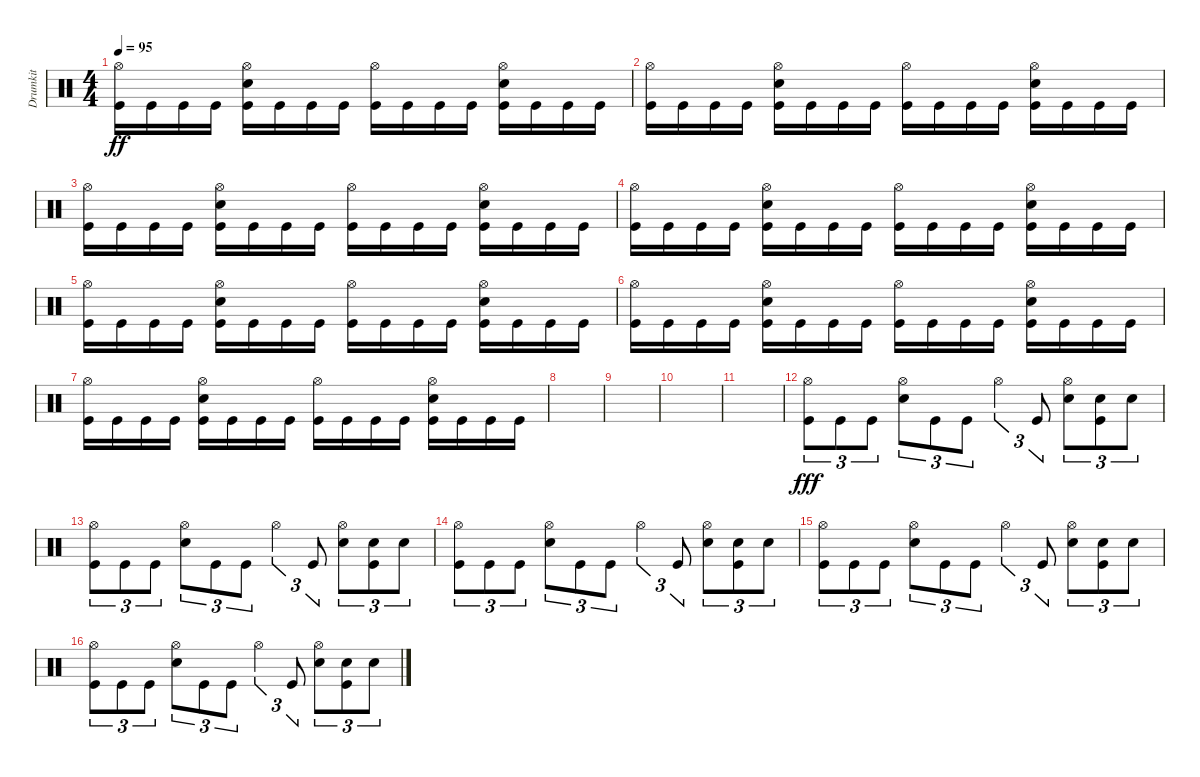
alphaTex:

\track ("Drumkit" "Drumkit") {instrument percussion}
\staff {score}
\articulation defaults
\ts (4 4)
\tempo 95
\clef neutral
\ks c
("Hi-Hat (open)" "Kick (hit)").16{dy ff} "Kick (hit)".16 "Kick (hit)".16 "Kick (hit)".16 ("Hi-Hat (open)" "Snare (hit) 2" "Kick (hit)").16 "Kick (hit)".16 "Kick (hit)".16 "Kick (hit)".16 ("Hi-Hat (open)" "Kick (hit)").16 "Kick (hit)".16 "Kick (hit)".16 "Kick (hit)".16 ("Hi-Hat (open)" "Snare (hit) 2" "Kick (hit)").16 "Kick (hit)".16 "Kick (hit)".16 "Kick (hit)".16 |
("Hi-Hat (open)" "Kick (hit)").16 "Kick (hit)".16 "Kick (hit)".16 "Kick (hit)".16 ("Hi-Hat (open)" "Snare (hit) 2" "Kick (hit)").16 "Kick (hit)".16 "Kick (hit)".16 "Kick (hit)".16 ("Hi-Hat (open)" "Kick (hit)").16 "Kick (hit)".16 "Kick (hit)".16 "Kick (hit)".16 ("Hi-Hat (open)" "Snare (hit) 2" "Kick (hit)").16 "Kick (hit)".16 "Kick (hit)".16 "Kick (hit)".16 |
("Hi-Hat (open)" "Kick (hit)").16 "Kick (hit)".16 "Kick (hit)".16 "Kick (hit)".16 ("Hi-Hat (open)" "Snare (hit) 2" "Kick (hit)").16 "Kick (hit)".16 "Kick (hit)".16 "Kick (hit)".16 ("Hi-Hat (open)" "Kick (hit)").16 "Kick (hit)".16 "Kick (hit)".16 "Kick (hit)".16 ("Hi-Hat (open)" "Snare (hit) 2" "Kick (hit)").16 "Kick (hit)".16 "Kick (hit)".16 "Kick (hit)".16 |
("Hi-Hat (open)" "Kick (hit)").16 "Kick (hit)".16 "Kick (hit)".16 "Kick (hit)".16 ("Hi-Hat (open)" "Snare (hit) 2" "Kick (hit)").16 "Kick (hit)".16 "Kick (hit)".16 "Kick (hit)".16 ("Hi-Hat (open)" "Kick (hit)").16 "Kick (hit)".16 "Kick (hit)".16 "Kick (hit)".16 ("Hi-Hat (open)" "Snare (hit) 2" "Kick (hit)").16 "Kick (hit)".16 "Kick (hit)".16 "Kick (hit)".16 |
("Hi-Hat (open)" "Kick (hit)").16 "Kick (hit)".16 "Kick (hit)".16 "Kick (hit)".16 ("Hi-Hat (open)" "Snare (hit) 2" "Kick (hit)").16 "Kick (hit)".16 "Kick (hit)".16 "Kick (hit)".16 ("Hi-Hat (open)" "Kick (hit)").16 "Kick (hit)".16 "Kick (hit)".16 "Kick (hit)".16 ("Hi-Hat (open)" "Snare (hit) 2" "Kick (hit)").16 "Kick (hit)".16 "Kick (hit)".16 "Kick (hit)".16 |
("Hi-Hat (open)" "Kick (hit)").16 "Kick (hit)".16 "Kick (hit)".16 "Kick (hit)".16 ("Hi-Hat (open)" "Snare (hit) 2" "Kick (hit)").16 "Kick (hit)".16 "Kick (hit)".16 "Kick (hit)".16 ("Hi-Hat (open)" "Kick (hit)").16 "Kick (hit)".16 "Kick (hit)".16 "Kick (hit)".16 ("Hi-Hat (open)" "Snare (hit) 2" "Kick (hit)").16 "Kick (hit)".16 "Kick (hit)".16 "Kick (hit)".16 |
("Hi-Hat (open)" "Kick (hit)").16 "Kick (hit)".16 "Kick (hit)".16 "Kick (hit)".16 ("Hi-Hat (open)" "Snare (hit) 2" "Kick (hit)").16 "Kick (hit)".16 "Kick (hit)".16 "Kick (hit)".16 ("Hi-Hat (open)" "Kick (hit)").16 "Kick (hit)".16 "Kick (hit)".16 "Kick (hit)".16 ("Hi-Hat (open)" "Snare (hit) 2" "Kick (hit)").16 "Kick (hit)".16 "Kick (hit)".16 "Kick (hit)".16 |
|
|
|
|
("Hi-Hat (open)" "Kick (hit)").8{tu (3 2) dy fff} "Kick (hit)".8{tu (3 2)} "Kick (hit)".8{tu (3 2)} ("Hi-Hat (open)" "Snare (hit) 2").8{tu (3 2)} "Kick (hit)".8{tu (3 2)} "Kick (hit)".8{tu (3 2)} "Hi-Hat (open)".4{tu (3 2)} "Kick (hit)".8{tu (3 2)} ("Hi-Hat (open)" "Snare (hit) 2").8{tu (3 2)} ("Snare (hit) 2" "Kick (hit)").8{tu (3 2)} "Snare (hit) 2".8{tu (3 2)} |
("Hi-Hat (open)" "Kick (hit)").8{tu (3 2)} "Kick (hit)".8{tu (3 2)} "Kick (hit)".8{tu (3 2)} ("Hi-Hat (open)" "Snare (hit) 2").8{tu (3 2)} "Kick (hit)".8{tu (3 2)} "Kick (hit)".8{tu (3 2)} "Hi-Hat (open)".4{tu (3 2)} "Kick (hit)".8{tu (3 2)} ("Hi-Hat (open)" "Snare (hit) 2").8{tu (3 2)} ("Snare (hit) 2" "Kick (hit)").8{tu (3 2)} "Snare (hit) 2".8{tu (3 2)} |
("Hi-Hat (open)" "Kick (hit)").8{tu (3 2)} "Kick (hit)".8{tu (3 2)} "Kick (hit)".8{tu (3 2)} ("Hi-Hat (open)" "Snare (hit) 2").8{tu (3 2)} "Kick (hit)".8{tu (3 2)} "Kick (hit)".8{tu (3 2)} "Hi-Hat (open)".4{tu (3 2)} "Kick (hit)".8{tu (3 2)} ("Hi-Hat (open)" "Snare (hit) 2").8{tu (3 2)} ("Snare (hit) 2" "Kick (hit)").8{tu (3 2)} "Snare (hit) 2".8{tu (3 2)} |
("Hi-Hat (open)" "Kick (hit)").8{tu (3 2)} "Kick (hit)".8{tu (3 2)} "Kick (hit)".8{tu (3 2)} ("Hi-Hat (open)" "Snare (hit) 2").8{tu (3 2)} "Kick (hit)".8{tu (3 2)} "Kick (hit)".8{tu (3 2)} "Hi-Hat (open)".4{tu (3 2)} "Kick (hit)".8{tu (3 2)} ("Hi-Hat (open)" "Snare (hit) 2").8{tu (3 2)} ("Snare (hit) 2" "Kick (hit)").8{tu (3 2)} "Snare (hit) 2".8{tu (3 2)} |
("Hi-Hat (open)" "Kick (hit)").8{tu (3 2)} "Kick (hit)".8{tu (3 2)} "Kick (hit)".8{tu (3 2)} ("Hi-Hat (open)" "Snare (hit) 2").8{tu (3 2)} "Kick (hit)".8{tu (3 2)} "Kick (hit)".8{tu (3 2)} "Hi-Hat (open)".4{tu (3 2)} "Kick (hit)".8{tu (3 2)} ("Hi-Hat (open)" "Snare (hit) 2").8{tu (3 2)} ("Snare (hit) 2" "Kick (hit)").8{tu (3 2)} "Snare (hit) 2".8{tu (3 2)}
